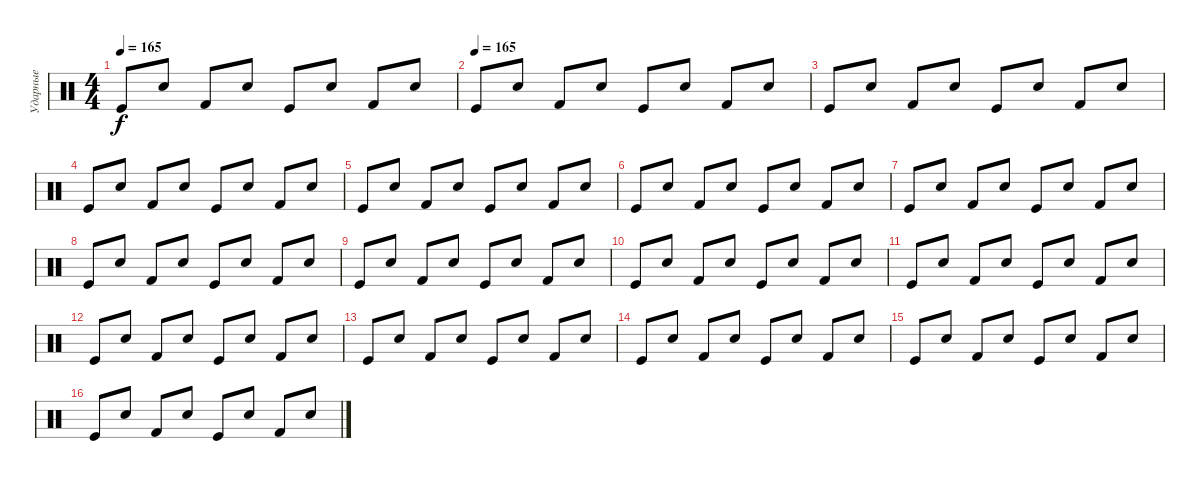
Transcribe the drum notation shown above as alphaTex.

\track ("Ударные" "Ударные") {instrument percussion}
\staff {score}
\articulation defaults
\ts (4 4)
\tempo 165
\clef neutral
\ks c "Kick (hit)".8{dy f} "Snare (hit) 2".8 "Kick (hit) 2".8 "Snare (hit) 2".8 "Kick (hit)".8 "Snare (hit) 2".8 "Kick (hit) 2".8 "Snare (hit) 2".8
|
\tempo (165)
"Kick (hit)".8 "Snare (hit) 2".8 "Kick (hit) 2".8 "Snare (hit) 2".8 "Kick (hit)".8 "Snare (hit) 2".8 "Kick (hit) 2".8 "Snare (hit) 2".8 |
"Kick (hit)".8 "Snare (hit) 2".8 "Kick (hit) 2".8 "Snare (hit) 2".8 "Kick (hit)".8 "Snare (hit) 2".8 "Kick (hit) 2".8 "Snare (hit) 2".8 |
"Kick (hit)".8 "Snare (hit) 2".8 "Kick (hit) 2".8 "Snare (hit) 2".8 "Kick (hit)".8 "Snare (hit) 2".8 "Kick (hit) 2".8 "Snare (hit) 2".8 |
"Kick (hit)".8 "Snare (hit) 2".8 "Kick (hit) 2".8 "Snare (hit) 2".8 "Kick (hit)".8 "Snare (hit) 2".8 "Kick (hit) 2".8 "Snare (hit) 2".8 |
"Kick (hit)".8 "Snare (hit) 2".8 "Kick (hit) 2".8 "Snare (hit) 2".8 "Kick (hit)".8 "Snare (hit) 2".8 "Kick (hit) 2".8 "Snare (hit) 2".8 |
"Kick (hit)".8 "Snare (hit) 2".8 "Kick (hit) 2".8 "Snare (hit) 2".8 "Kick (hit)".8 "Snare (hit) 2".8 "Kick (hit) 2".8 "Snare (hit) 2".8 |
"Kick (hit)".8 "Snare (hit) 2".8 "Kick (hit) 2".8 "Snare (hit) 2".8 "Kick (hit)".8 "Snare (hit) 2".8 "Kick (hit) 2".8 "Snare (hit) 2".8 |
"Kick (hit)".8 "Snare (hit) 2".8 "Kick (hit) 2".8 "Snare (hit) 2".8 "Kick (hit)".8 "Snare (hit) 2".8 "Kick (hit) 2".8 "Snare (hit) 2".8 |
"Kick (hit)".8 "Snare (hit) 2".8 "Kick (hit) 2".8 "Snare (hit) 2".8 "Kick (hit)".8 "Snare (hit) 2".8 "Kick (hit) 2".8 "Snare (hit) 2".8 |
"Kick (hit)".8 "Snare (hit) 2".8 "Kick (hit) 2".8 "Snare (hit) 2".8 "Kick (hit)".8 "Snare (hit) 2".8 "Kick (hit) 2".8 "Snare (hit) 2".8 |
"Kick (hit)".8 "Snare (hit) 2".8 "Kick (hit) 2".8 "Snare (hit) 2".8 "Kick (hit)".8 "Snare (hit) 2".8 "Kick (hit) 2".8 "Snare (hit) 2".8 |
"Kick (hit)".8 "Snare (hit) 2".8 "Kick (hit) 2".8 "Snare (hit) 2".8 "Kick (hit)".8 "Snare (hit) 2".8 "Kick (hit) 2".8 "Snare (hit) 2".8 |
"Kick (hit)".8 "Snare (hit) 2".8 "Kick (hit) 2".8 "Snare (hit) 2".8 "Kick (hit)".8 "Snare (hit) 2".8 "Kick (hit) 2".8 "Snare (hit) 2".8 |
"Kick (hit)".8 "Snare (hit) 2".8 "Kick (hit) 2".8 "Snare (hit) 2".8 "Kick (hit)".8 "Snare (hit) 2".8 "Kick (hit) 2".8 "Snare (hit) 2".8 |
"Kick (hit)".8 "Snare (hit) 2".8 "Kick (hit) 2".8 "Snare (hit) 2".8 "Kick (hit)".8 "Snare (hit) 2".8 "Kick (hit) 2".8 "Snare (hit) 2".8
